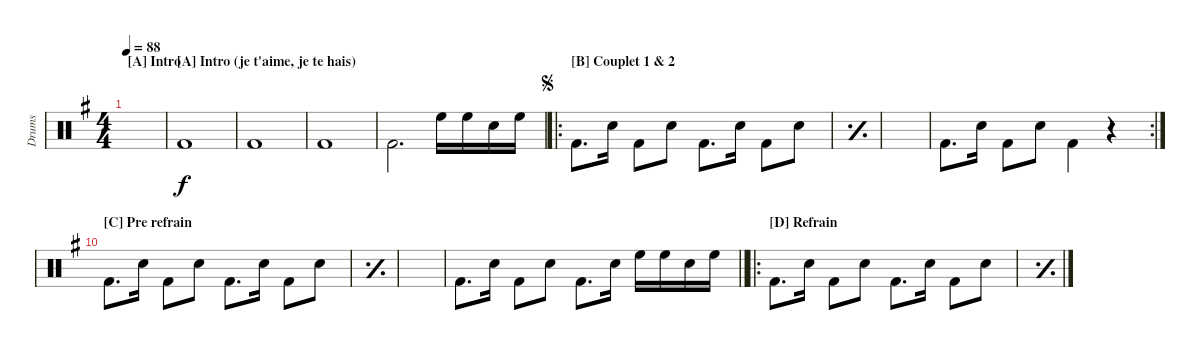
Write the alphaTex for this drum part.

\defaultSystemsLayout 4
\bracketExtendMode groupsimilarinstruments
\firstSystemTrackNameMode fullname
\otherSystemsTrackNameMode fullname
\defaultBarNumberDisplay FirstOfSystem
\track ("Drums" "drm.") {defaultSystemsLayout 6 instrument percussion}
\staff {score}
\articulation defaults
\ts (4 4)
\section ("A" "Intro")
\ac
\tempo 88
\clef neutral
\ks g
|
\section ("A" "Intro (je t'aime, je te hais)")
"Kick (hit) 2"{acc forcenatural}.1{beam Down} |
"Kick (hit) 2"{acc forcenatural}.1{beam Down} |
"Kick (hit) 2"{acc forcenatural}.1{beam Down} |
"Kick (hit) 2"{acc forcenatural}.2{d beam Down} "High Floor Tom (hit)"{acc forcenatural}.16{beam Down} "High Floor Tom (hit)"{acc forcenatural}.16{beam Down} "Snare (hit) 2"{acc forcenatural}.16{beam Down} "High Floor Tom (hit)"{acc forcenatural}.16{beam Down} |
\ro
\section ("B" "Couplet 1 & 2")
\jump segno "Kick (hit) 2"{acc forcenatural}.8{d beam Down} "Snare (hit) 2"{acc forcenatural}.16{beam Down} "Kick (hit) 2"{acc forcenatural}.8{beam Down} "Snare (hit) 2"{acc forcenatural}.8{beam Down} "Kick (hit) 2"{acc forcenatural}.8{d beam Down} "Snare (hit) 2"{acc forcenatural}.16{beam Down} "Kick (hit) 2"{acc forcenatural}.8{beam Down} "Snare (hit) 2"{acc forcenatural}.8{beam Down}
|
\simile simple
|
|
\rc 2
\simile none "Kick (hit) 2"{acc forcenatural}.8{d beam Down} "Snare (hit) 2"{acc forcenatural}.16{beam Down} "Kick (hit) 2"{acc forcenatural}.8{beam Down} "Snare (hit) 2"{acc forcenatural}.8{beam Down} "Kick (hit) 2"{acc forcenatural}.4{beam Down}
r.4{beam Down} |
\section ("C" "Pre refrain")
"Kick (hit) 2"{acc forcenatural}.8{d beam Down} "Snare (hit) 2"{acc forcenatural}.16{beam Down} "Kick (hit) 2"{acc forcenatural}.8{beam Down} "Snare (hit) 2"{acc forcenatural}.8{beam Down} "Kick (hit) 2"{acc forcenatural}.8{d beam Down} "Snare (hit) 2"{acc forcenatural}.16{beam Down} "Kick (hit) 2"{acc forcenatural}.8{beam Down} "Snare (hit) 2"{acc forcenatural}.8{beam Down} |
\simile simple
|
|
\section ("" "")
\simile none
\barLineRight lightlight "Kick (hit) 2"{acc forcenatural}.8{d beam Down} "Snare (hit) 2"{acc forcenatural}.16{beam Down} "Kick (hit) 2"{acc forcenatural}.8{beam Down} "Snare (hit) 2"{acc forcenatural}.8{beam Down} "Kick (hit) 2"{acc forcenatural}.8{d beam Down} "Snare (hit) 2"{acc forcenatural}.16{beam Down} "High Floor Tom (hit)"{acc forcenatural}.16{beam Down} "High Floor Tom (hit)"{acc forcenatural}.16{beam Down} "Snare (hit) 2"{acc forcenatural}.16{beam Down} "High Floor Tom (hit)"{acc forcenatural}.16{beam Down}
|
\ro
\section ("D" "Refrain")
"Kick (hit) 2"{acc forcenatural}.8{d beam Down} "Snare (hit) 2"{acc forcenatural}.16{beam Down} "Kick (hit) 2"{acc forcenatural}.8{beam Down} "Snare (hit) 2"{acc forcenatural}.8{beam Down} "Kick (hit) 2"{acc forcenatural}.8{d beam Down} "Snare (hit) 2"{acc forcenatural}.16{beam Down} "Kick (hit) 2"{acc forcenatural}.8{beam Down} "Snare (hit) 2"{acc forcenatural}.8{beam Down} |
\simile simple
